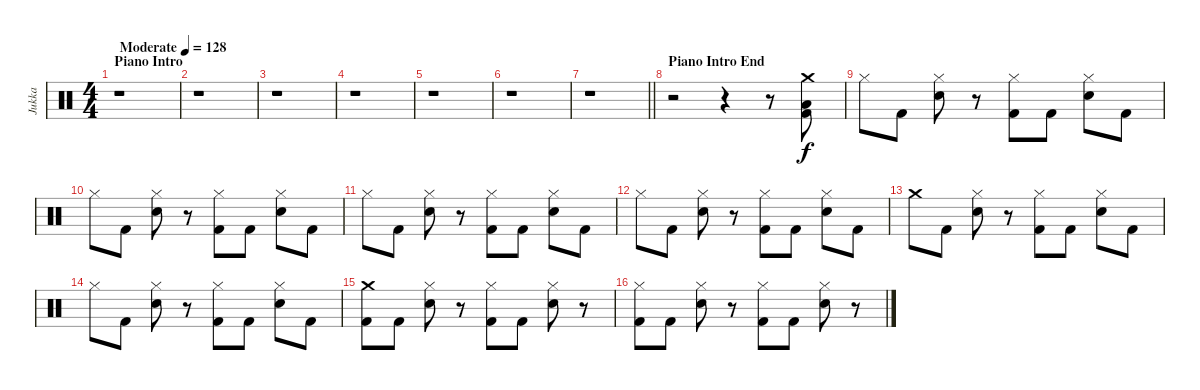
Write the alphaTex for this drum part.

\track ("Jukka" "Jukka") {instrument percussion}
\staff {score}
\articulation defaults
\ts (4 4)
\section ("" "Piano Intro")
\tempo (128 "Moderate")
\clef neutral
\ks c
r.1{dy f} |
r.1 |
r.1 |
r.1 |
r.1 |
r.1 |
\barLineRight lightlight
r.1 |
\section ("" "Piano Intro End")
r.2 r.4 r.8 ("Kick (hit) 2" "Low Floor Tom (hit)" "Crash medium (hit)").8 |
"Hi-Hat (closed)".8 "Kick (hit) 2".8 ("Electric Snare (hit)" "Hi-Hat (closed)").8 r.8 ("Kick (hit) 2" "Hi-Hat (closed)").8 "Kick (hit) 2".8 ("Electric Snare (hit)" "Hi-Hat (closed)").8 "Kick (hit) 2".8 |
"Hi-Hat (closed)".8 "Kick (hit) 2".8 ("Electric Snare (hit)" "Hi-Hat (closed)").8 r.8 ("Kick (hit) 2" "Hi-Hat (closed)").8 "Kick (hit) 2".8 ("Electric Snare (hit)" "Hi-Hat (closed)").8 "Kick (hit) 2".8 |
"Hi-Hat (closed)".8 "Kick (hit) 2".8 ("Electric Snare (hit)" "Hi-Hat (closed)").8 r.8 ("Kick (hit) 2" "Hi-Hat (closed)").8 "Kick (hit) 2".8 ("Electric Snare (hit)" "Hi-Hat (closed)").8 "Kick (hit) 2".8 |
"Hi-Hat (closed)".8 "Kick (hit) 2".8 ("Electric Snare (hit)" "Hi-Hat (closed)").8 r.8 ("Kick (hit) 2" "Hi-Hat (closed)").8 "Kick (hit) 2".8 ("Electric Snare (hit)" "Hi-Hat (closed)").8 "Kick (hit) 2".8 |
"Crash medium (hit)".8 "Kick (hit) 2".8 ("Electric Snare (hit)" "Hi-Hat (closed)").8 r.8 ("Kick (hit) 2" "Hi-Hat (closed)").8 "Kick (hit) 2".8 ("Electric Snare (hit)" "Hi-Hat (closed)").8 "Kick (hit) 2".8 |
"Hi-Hat (closed)".8 "Kick (hit) 2".8 ("Electric Snare (hit)" "Hi-Hat (closed)").8 r.8 ("Kick (hit) 2" "Hi-Hat (closed)").8 "Kick (hit) 2".8 ("Electric Snare (hit)" "Hi-Hat (closed)").8 "Kick (hit) 2".8 |
("Kick (hit) 2" "Crash medium (hit)").8 "Kick (hit) 2".8 ("Electric Snare (hit)" "Hi-Hat (closed)").8 r.8 ("Kick (hit) 2" "Hi-Hat (closed)").8 "Kick (hit) 2".8 ("Electric Snare (hit)" "Hi-Hat (closed)").8 r.8 |
("Kick (hit) 2" "Hi-Hat (closed)").8 "Kick (hit) 2".8 ("Electric Snare (hit)" "Hi-Hat (closed)").8 r.8 ("Kick (hit) 2" "Hi-Hat (closed)").8 "Kick (hit) 2".8 ("Electric Snare (hit)" "Hi-Hat (closed)").8 r.8
